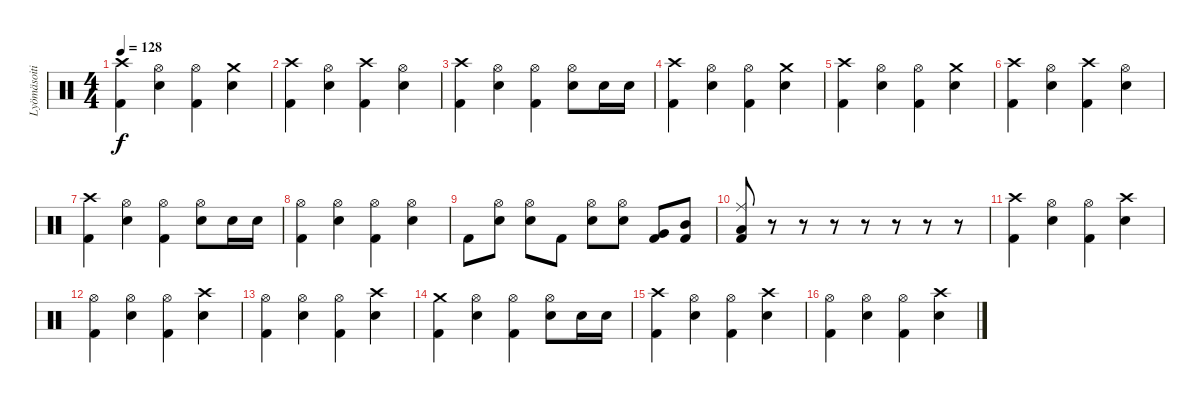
\track ("Lyömäsoitin" "Lyömäsoiti") {instrument percussion}
\staff {score}
\articulation defaults
\ts (4 4)
\tempo 128
\clef neutral
\ks c
("Crash high (hit)" "Kick (hit) 2").4{dy f} ("Hi-Hat (open)" "Electric Snare (hit)").4 ("Hi-Hat (open)" "Kick (hit) 2").4 ("Crash medium (hit)" "Electric Snare (hit)").4 |
("Crash high (hit)" "Kick (hit) 2").4 ("Hi-Hat (open)" "Electric Snare (hit)").4 ("Crash high (hit)" "Kick (hit) 2").4 ("Hi-Hat (open)" "Electric Snare (hit)").4 |
("Crash high (hit)" "Kick (hit) 2").4 ("Hi-Hat (open)" "Electric Snare (hit)").4 ("Hi-Hat (open)" "Kick (hit) 2").4 ("Hi-Hat (open)" "Electric Snare (hit)").8 "Electric Snare (hit)".16 "Electric Snare (hit)".16 |
("Crash high (hit)" "Kick (hit) 2").4 ("Hi-Hat (open)" "Electric Snare (hit)").4 ("Hi-Hat (open)" "Kick (hit) 2").4 ("Crash medium (hit)" "Electric Snare (hit)").4 |
("Crash high (hit)" "Kick (hit) 2").4 ("Hi-Hat (open)" "Electric Snare (hit)").4 ("Hi-Hat (open)" "Kick (hit) 2").4 ("Crash medium (hit)" "Electric Snare (hit)").4 |
("Crash high (hit)" "Kick (hit) 2").4 ("Hi-Hat (open)" "Electric Snare (hit)").4 ("Crash high (hit)" "Kick (hit) 2").4 ("Hi-Hat (open)" "Electric Snare (hit)").4 |
("Crash high (hit)" "Kick (hit) 2").4 ("Hi-Hat (open)" "Electric Snare (hit)").4 ("Hi-Hat (open)" "Kick (hit) 2").4 ("Hi-Hat (open)" "Electric Snare (hit)").8 "Electric Snare (hit)".16 "Electric Snare (hit)".16 |
("Hi-Hat (open)" "Kick (hit) 2").4 ("Hi-Hat (open)" "Electric Snare (hit)").4 ("Hi-Hat (open)" "Kick (hit) 2").4 ("Hi-Hat (open)" "Electric Snare (hit)").4 |
"Kick (hit) 2".8 ("Hi-Hat (open)" "Electric Snare (hit)").8 ("Hi-Hat (open)" "Electric Snare (hit)").8 "Kick (hit) 2".8 ("Hi-Hat (open)" "Electric Snare (hit)").8 ("Hi-Hat (open)" "Electric Snare (hit)").8 ("Very Low Tom (hit)" "Kick (hit) 2").8 ("Mid Tom (hit)" "Kick (hit) 2").8 |
("Ride (middle)" "Low Tom (hit)" "Kick (hit) 2").8 r.8 r.8 r.8 r.8 r.8 r.8 r.8 |
("Crash high (hit)" "Kick (hit) 2").4 ("Hi-Hat (open)" "Electric Snare (hit)").4 ("Hi-Hat (open)" "Kick (hit) 2").4 ("Crash high (hit)" "Electric Snare (hit)").4 |
("Hi-Hat (open)" "Kick (hit) 2").4 ("Hi-Hat (open)" "Electric Snare (hit)").4 ("Hi-Hat (open)" "Kick (hit) 2").4 ("Crash high (hit)" "Electric Snare (hit)").4 |
("Hi-Hat (open)" "Kick (hit) 2").4 ("Hi-Hat (open)" "Electric Snare (hit)").4 ("Hi-Hat (open)" "Kick (hit) 2").4 ("Crash high (hit)" "Electric Snare (hit)").4 |
("Crash medium (hit)" "Kick (hit) 2").4 ("Hi-Hat (open)" "Electric Snare (hit)").4 ("Hi-Hat (open)" "Kick (hit) 2").4 ("Hi-Hat (open)" "Electric Snare (hit)").8 "Electric Snare (hit)".16 "Electric Snare (hit)".16 |
("Crash high (hit)" "Kick (hit) 2").4 ("Hi-Hat (open)" "Electric Snare (hit)").4 ("Hi-Hat (open)" "Kick (hit) 2").4 ("Crash high (hit)" "Electric Snare (hit)").4 |
("Hi-Hat (open)" "Kick (hit) 2").4 ("Hi-Hat (open)" "Electric Snare (hit)").4 ("Hi-Hat (open)" "Kick (hit) 2").4 ("Crash high (hit)" "Electric Snare (hit)").4
